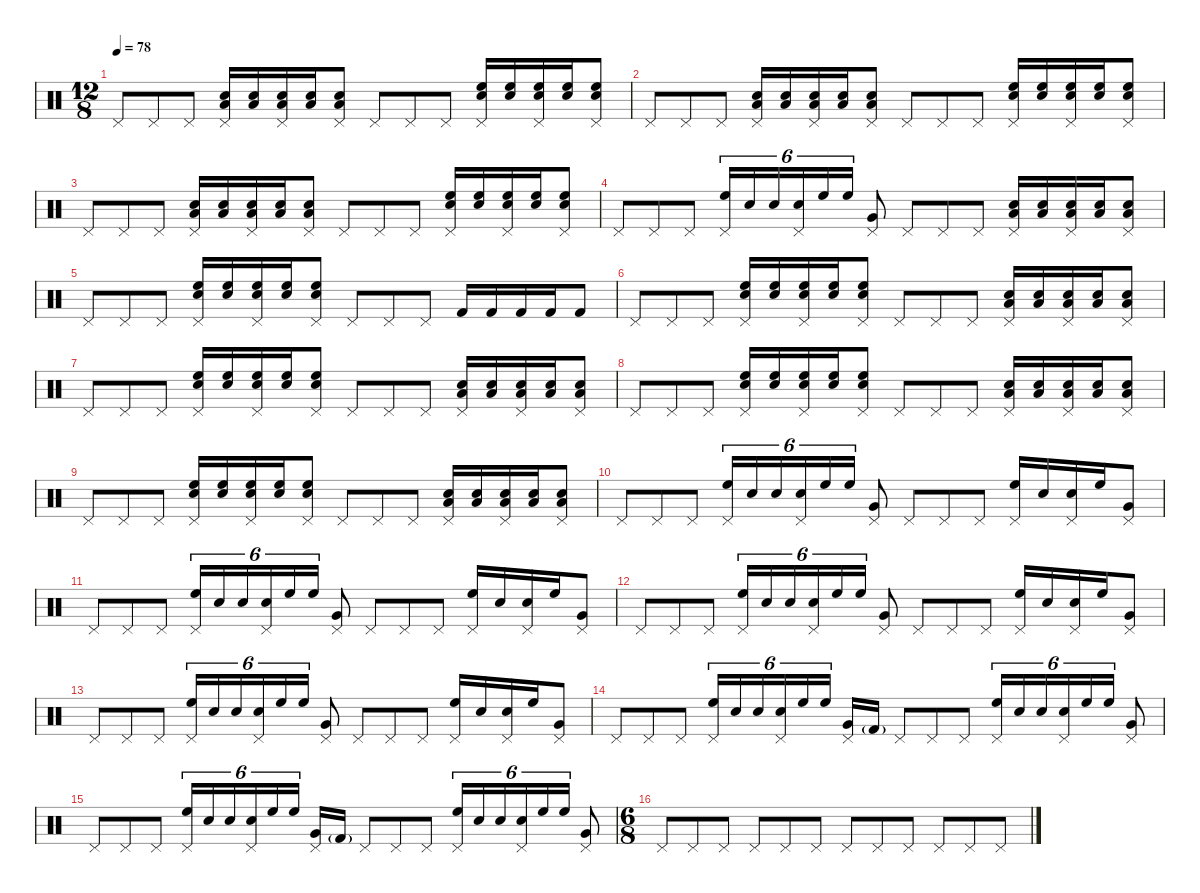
\defaultSystemsLayout 4
\hideDynamics
\bracketExtendMode nobrackets
\singleTrackTrackNamePolicy hidden
\multiTrackTrackNamePolicy hidden
\firstSystemTrackNameMode fullname
\firstSystemTrackNameOrientation horizontal
\otherSystemsTrackNameOrientation horizontal
\track ("Drums" "drm.") {instrument percussion}
\staff {score}
\articulation defaults
\ts (12 8)
\tempo 78
\clef neutral
\ks c "Pedal Hi-Hat (hit)".8{dy f beam Up} "Pedal Hi-Hat (hit)".8{beam Up} "Pedal Hi-Hat (hit)".8{beam Up}
("Pedal Hi-Hat (hit)" "Low Floor Tom (hit)" "Snare (hit) 2").16{beam Up} ("Low Floor Tom (hit)" "Snare (hit) 2").16{beam Up} ("Pedal Hi-Hat (hit)" "Low Floor Tom (hit)" "Snare (hit) 2").16{beam Up} ("Low Floor Tom (hit)" "Snare (hit) 2").16{beam Up} ("Pedal Hi-Hat (hit)" "Low Floor Tom (hit)" "Snare (hit) 2").8{beam Up} "Pedal Hi-Hat (hit)".8{beam Up} "Pedal Hi-Hat (hit)".8{beam Up} "Pedal Hi-Hat (hit)".8{beam Up} ("Pedal Hi-Hat (hit)" "High Floor Tom (hit)" "Snare (hit) 2").16{beam Up} ("High Floor Tom (hit)" "Snare (hit) 2").16{beam Up} ("Pedal Hi-Hat (hit)" "High Floor Tom (hit)" "Snare (hit) 2").16{beam Up} ("High Floor Tom (hit)" "Snare (hit) 2").16{beam Up} ("Pedal Hi-Hat (hit)" "High Floor Tom (hit)" "Snare (hit) 2").8{beam Up} |
"Pedal Hi-Hat (hit)".8{beam Up} "Pedal Hi-Hat (hit)".8{beam Up} "Pedal Hi-Hat (hit)".8{beam Up} ("Pedal Hi-Hat (hit)" "Low Floor Tom (hit)" "Snare (hit) 2").16{beam Up} ("Low Floor Tom (hit)" "Snare (hit) 2").16{beam Up} ("Pedal Hi-Hat (hit)" "Low Floor Tom (hit)" "Snare (hit) 2").16{beam Up} ("Low Floor Tom (hit)" "Snare (hit) 2").16{beam Up} ("Pedal Hi-Hat (hit)" "Low Floor Tom (hit)" "Snare (hit) 2").8{beam Up} "Pedal Hi-Hat (hit)".8{beam Up} "Pedal Hi-Hat (hit)".8{beam Up} "Pedal Hi-Hat (hit)".8{beam Up} ("Pedal Hi-Hat (hit)" "High Floor Tom (hit)" "Snare (hit) 2").16{beam Up} ("High Floor Tom (hit)" "Snare (hit) 2").16{beam Up} ("Pedal Hi-Hat (hit)" "High Floor Tom (hit)" "Snare (hit) 2").16{beam Up} ("High Floor Tom (hit)" "Snare (hit) 2").16{beam Up} ("Pedal Hi-Hat (hit)" "High Floor Tom (hit)" "Snare (hit) 2").8{beam Up} |
"Pedal Hi-Hat (hit)".8{beam Up} "Pedal Hi-Hat (hit)".8{beam Up} "Pedal Hi-Hat (hit)".8{beam Up} ("Pedal Hi-Hat (hit)" "Low Floor Tom (hit)" "Snare (hit) 2").16{beam Up} ("Low Floor Tom (hit)" "Snare (hit) 2").16{beam Up} ("Pedal Hi-Hat (hit)" "Low Floor Tom (hit)" "Snare (hit) 2").16{beam Up} ("Low Floor Tom (hit)" "Snare (hit) 2").16{beam Up} ("Pedal Hi-Hat (hit)" "Low Floor Tom (hit)" "Snare (hit) 2").8{beam Up} "Pedal Hi-Hat (hit)".8{beam Up} "Pedal Hi-Hat (hit)".8{beam Up} "Pedal Hi-Hat (hit)".8{beam Up} ("Pedal Hi-Hat (hit)" "High Floor Tom (hit)" "Snare (hit) 2").16{beam Up} ("High Floor Tom (hit)" "Snare (hit) 2").16{beam Up} ("Pedal Hi-Hat (hit)" "High Floor Tom (hit)" "Snare (hit) 2").16{beam Up} ("High Floor Tom (hit)" "Snare (hit) 2").16{beam Up} ("Pedal Hi-Hat (hit)" "High Floor Tom (hit)" "Snare (hit) 2").8{beam Up} |
"Pedal Hi-Hat (hit)".8{beam Up} "Pedal Hi-Hat (hit)".8{beam Up} "Pedal Hi-Hat (hit)".8{beam Up} ("Pedal Hi-Hat (hit)" "High Floor Tom (hit)").16{tu (6 4) beam Up} "Snare (hit) 2".16{tu (6 4) beam Up} "Snare (hit) 2".16{tu (6 4) beam Up} ("Pedal Hi-Hat (hit)" "Snare (hit) 2").16{tu (6 4) beam Up} "High Floor Tom (hit)".16{tu (6 4) beam Up} "High Floor Tom (hit)".16{tu (6 4) beam Up} ("Pedal Hi-Hat (hit)" "Very Low Tom (hit)").8{beam Up} "Pedal Hi-Hat (hit)".8{beam Up} "Pedal Hi-Hat (hit)".8{beam Up} "Pedal Hi-Hat (hit)".8{beam Up} ("Pedal Hi-Hat (hit)" "Low Floor Tom (hit)" "Snare (hit) 2").16{beam Up} ("Low Floor Tom (hit)" "Snare (hit) 2").16{beam Up} ("Pedal Hi-Hat (hit)" "Low Floor Tom (hit)" "Snare (hit) 2").16{beam Up} ("Low Floor Tom (hit)" "Snare (hit) 2").16{beam Up} ("Pedal Hi-Hat (hit)" "Low Floor Tom (hit)" "Snare (hit) 2").8{beam Up} |
"Pedal Hi-Hat (hit)".8{beam Up} "Pedal Hi-Hat (hit)".8{beam Up} "Pedal Hi-Hat (hit)".8{beam Up} ("Pedal Hi-Hat (hit)" "High Floor Tom (hit)" "Snare (hit) 2").16{beam Up} ("High Floor Tom (hit)" "Snare (hit) 2").16{beam Up} ("Pedal Hi-Hat (hit)" "High Floor Tom (hit)" "Snare (hit) 2").16{beam Up} ("High Floor Tom (hit)" "Snare (hit) 2").16{beam Up} ("Pedal Hi-Hat (hit)" "High Floor Tom (hit)" "Snare (hit) 2").8{beam Up} "Pedal Hi-Hat (hit)".8{beam Up} "Pedal Hi-Hat (hit)".8{beam Up} "Pedal Hi-Hat (hit)".8{beam Up} "Kick (hit) 2".16{beam Up} "Kick (hit) 2".16{beam Up} "Kick (hit) 2".16{beam Up} "Kick (hit) 2".16{beam Up} "Kick (hit) 2".8{beam Up} |
"Pedal Hi-Hat (hit)".8{beam Up} "Pedal Hi-Hat (hit)".8{beam Up} "Pedal Hi-Hat (hit)".8{beam Up} ("Pedal Hi-Hat (hit)" "High Floor Tom (hit)" "Snare (hit) 2").16{beam Up} ("High Floor Tom (hit)" "Snare (hit) 2").16{beam Up} ("Pedal Hi-Hat (hit)" "High Floor Tom (hit)" "Snare (hit) 2").16{beam Up} ("High Floor Tom (hit)" "Snare (hit) 2").16{beam Up} ("Pedal Hi-Hat (hit)" "High Floor Tom (hit)" "Snare (hit) 2").8{beam Up} "Pedal Hi-Hat (hit)".8{beam Up} "Pedal Hi-Hat (hit)".8{beam Up} "Pedal Hi-Hat (hit)".8{beam Up} ("Pedal Hi-Hat (hit)" "Low Floor Tom (hit)" "Snare (hit) 2").16{beam Up} ("Low Floor Tom (hit)" "Snare (hit) 2").16{beam Up} ("Pedal Hi-Hat (hit)" "Low Floor Tom (hit)" "Snare (hit) 2").16{beam Up} ("Low Floor Tom (hit)" "Snare (hit) 2").16{beam Up} ("Pedal Hi-Hat (hit)" "Low Floor Tom (hit)" "Snare (hit) 2").8{beam Up} |
"Pedal Hi-Hat (hit)".8{beam Up} "Pedal Hi-Hat (hit)".8{beam Up} "Pedal Hi-Hat (hit)".8{beam Up} ("Pedal Hi-Hat (hit)" "High Floor Tom (hit)" "Snare (hit) 2").16{beam Up} ("High Floor Tom (hit)" "Snare (hit) 2").16{beam Up} ("Pedal Hi-Hat (hit)" "High Floor Tom (hit)" "Snare (hit) 2").16{beam Up} ("High Floor Tom (hit)" "Snare (hit) 2").16{beam Up} ("Pedal Hi-Hat (hit)" "High Floor Tom (hit)" "Snare (hit) 2").8{beam Up} "Pedal Hi-Hat (hit)".8{beam Up} "Pedal Hi-Hat (hit)".8{beam Up} "Pedal Hi-Hat (hit)".8{beam Up} ("Pedal Hi-Hat (hit)" "Low Floor Tom (hit)" "Snare (hit) 2").16{beam Up} ("Low Floor Tom (hit)" "Snare (hit) 2").16{beam Up} ("Pedal Hi-Hat (hit)" "Low Floor Tom (hit)" "Snare (hit) 2").16{beam Up} ("Low Floor Tom (hit)" "Snare (hit) 2").16{beam Up} ("Pedal Hi-Hat (hit)" "Low Floor Tom (hit)" "Snare (hit) 2").8{beam Up} |
"Pedal Hi-Hat (hit)".8{beam Up} "Pedal Hi-Hat (hit)".8{beam Up} "Pedal Hi-Hat (hit)".8{beam Up} ("Pedal Hi-Hat (hit)" "High Floor Tom (hit)" "Snare (hit) 2").16{beam Up} ("High Floor Tom (hit)" "Snare (hit) 2").16{beam Up} ("Pedal Hi-Hat (hit)" "High Floor Tom (hit)" "Snare (hit) 2").16{beam Up} ("High Floor Tom (hit)" "Snare (hit) 2").16{beam Up} ("Pedal Hi-Hat (hit)" "High Floor Tom (hit)" "Snare (hit) 2").8{beam Up} "Pedal Hi-Hat (hit)".8{beam Up} "Pedal Hi-Hat (hit)".8{beam Up} "Pedal Hi-Hat (hit)".8{beam Up} ("Pedal Hi-Hat (hit)" "Low Floor Tom (hit)" "Snare (hit) 2").16{beam Up} ("Low Floor Tom (hit)" "Snare (hit) 2").16{beam Up} ("Pedal Hi-Hat (hit)" "Low Floor Tom (hit)" "Snare (hit) 2").16{beam Up} ("Low Floor Tom (hit)" "Snare (hit) 2").16{beam Up} ("Pedal Hi-Hat (hit)" "Low Floor Tom (hit)" "Snare (hit) 2").8{beam Up} |
"Pedal Hi-Hat (hit)".8{beam Up} "Pedal Hi-Hat (hit)".8{beam Up} "Pedal Hi-Hat (hit)".8{beam Up} ("Pedal Hi-Hat (hit)" "High Floor Tom (hit)" "Snare (hit) 2").16{beam Up} ("High Floor Tom (hit)" "Snare (hit) 2").16{beam Up} ("Pedal Hi-Hat (hit)" "High Floor Tom (hit)" "Snare (hit) 2").16{beam Up} ("High Floor Tom (hit)" "Snare (hit) 2").16{beam Up} ("Pedal Hi-Hat (hit)" "High Floor Tom (hit)" "Snare (hit) 2").8{beam Up} "Pedal Hi-Hat (hit)".8{beam Up} "Pedal Hi-Hat (hit)".8{beam Up} "Pedal Hi-Hat (hit)".8{beam Up} ("Pedal Hi-Hat (hit)" "Low Floor Tom (hit)" "Snare (hit) 2").16{beam Up} ("Low Floor Tom (hit)" "Snare (hit) 2").16{beam Up} ("Pedal Hi-Hat (hit)" "Low Floor Tom (hit)" "Snare (hit) 2").16{beam Up} ("Low Floor Tom (hit)" "Snare (hit) 2").16{beam Up} ("Pedal Hi-Hat (hit)" "Low Floor Tom (hit)" "Snare (hit) 2").8{beam Up} |
"Pedal Hi-Hat (hit)".8{beam Up} "Pedal Hi-Hat (hit)".8{beam Up} "Pedal Hi-Hat (hit)".8{beam Up} ("Pedal Hi-Hat (hit)" "High Floor Tom (hit)").16{tu (6 4) beam Up} "Snare (hit) 2".16{tu (6 4) beam Up} "Snare (hit) 2".16{tu (6 4) beam Up} ("Pedal Hi-Hat (hit)" "Snare (hit) 2").16{tu (6 4) beam Up} "High Floor Tom (hit)".16{tu (6 4) beam Up} "High Floor Tom (hit)".16{tu (6 4) beam Up} ("Pedal Hi-Hat (hit)" "Very Low Tom (hit)").8{beam Up} "Pedal Hi-Hat (hit)".8{beam Up} "Pedal Hi-Hat (hit)".8{beam Up} "Pedal Hi-Hat (hit)".8{beam Up} ("Pedal Hi-Hat (hit)" "High Floor Tom (hit)").16{beam Up} "Snare (hit) 2".16{beam Up} ("Pedal Hi-Hat (hit)" "Snare (hit) 2").16{beam Up} "High Floor Tom (hit)".16{beam Up} ("Pedal Hi-Hat (hit)" "Very Low Tom (hit)").8{beam Up} |
"Pedal Hi-Hat (hit)".8{beam Up} "Pedal Hi-Hat (hit)".8{beam Up} "Pedal Hi-Hat (hit)".8{beam Up} ("Pedal Hi-Hat (hit)" "High Floor Tom (hit)").16{tu (6 4) beam Up} "Snare (hit) 2".16{tu (6 4) beam Up} "Snare (hit) 2".16{tu (6 4) beam Up} ("Pedal Hi-Hat (hit)" "Snare (hit) 2").16{tu (6 4) beam Up} "High Floor Tom (hit)".16{tu (6 4) beam Up} "High Floor Tom (hit)".16{tu (6 4) beam Up} ("Pedal Hi-Hat (hit)" "Very Low Tom (hit)").8{beam Up} "Pedal Hi-Hat (hit)".8{beam Up} "Pedal Hi-Hat (hit)".8{beam Up} "Pedal Hi-Hat (hit)".8{beam Up} ("Pedal Hi-Hat (hit)" "High Floor Tom (hit)").16{beam Up} "Snare (hit) 2".16{beam Up} ("Pedal Hi-Hat (hit)" "Snare (hit) 2").16{beam Up} "High Floor Tom (hit)".16{beam Up} ("Pedal Hi-Hat (hit)" "Very Low Tom (hit)").8{beam Up} |
"Pedal Hi-Hat (hit)".8{beam Up} "Pedal Hi-Hat (hit)".8{beam Up} "Pedal Hi-Hat (hit)".8{beam Up} ("Pedal Hi-Hat (hit)" "High Floor Tom (hit)").16{tu (6 4) beam Up} "Snare (hit) 2".16{tu (6 4) beam Up} "Snare (hit) 2".16{tu (6 4) beam Up} ("Pedal Hi-Hat (hit)" "Snare (hit) 2").16{tu (6 4) beam Up} "High Floor Tom (hit)".16{tu (6 4) beam Up} "High Floor Tom (hit)".16{tu (6 4) beam Up} ("Pedal Hi-Hat (hit)" "Very Low Tom (hit)").8{beam Up} "Pedal Hi-Hat (hit)".8{beam Up} "Pedal Hi-Hat (hit)".8{beam Up} "Pedal Hi-Hat (hit)".8{beam Up} ("Pedal Hi-Hat (hit)" "High Floor Tom (hit)").16{beam Up} "Snare (hit) 2".16{beam Up} ("Pedal Hi-Hat (hit)" "Snare (hit) 2").16{beam Up} "High Floor Tom (hit)".16{beam Up} ("Pedal Hi-Hat (hit)" "Very Low Tom (hit)").8{beam Up} |
"Pedal Hi-Hat (hit)".8{beam Up} "Pedal Hi-Hat (hit)".8{beam Up} "Pedal Hi-Hat (hit)".8{beam Up} ("Pedal Hi-Hat (hit)" "High Floor Tom (hit)").16{tu (6 4) beam Up} "Snare (hit) 2".16{tu (6 4) beam Up} "Snare (hit) 2".16{tu (6 4) beam Up} ("Pedal Hi-Hat (hit)" "Snare (hit) 2").16{tu (6 4) beam Up} "High Floor Tom (hit)".16{tu (6 4) beam Up} "High Floor Tom (hit)".16{tu (6 4) beam Up} ("Pedal Hi-Hat (hit)" "Very Low Tom (hit)").8{beam Up} "Pedal Hi-Hat (hit)".8{beam Up} "Pedal Hi-Hat (hit)".8{beam Up} "Pedal Hi-Hat (hit)".8{beam Up} ("Pedal Hi-Hat (hit)" "High Floor Tom (hit)").16{beam Up} "Snare (hit) 2".16{beam Up} ("Pedal Hi-Hat (hit)" "Snare (hit) 2").16{beam Up} "High Floor Tom (hit)".16{beam Up} ("Pedal Hi-Hat (hit)" "Very Low Tom (hit)").8{beam Up} |
"Pedal Hi-Hat (hit)".8{beam Up} "Pedal Hi-Hat (hit)".8{beam Up} "Pedal Hi-Hat (hit)".8{beam Up} ("Pedal Hi-Hat (hit)" "High Floor Tom (hit)").16{tu (6 4) beam Up} "Snare (hit) 2".16{tu (6 4) beam Up} "Snare (hit) 2".16{tu (6 4) beam Up} ("Pedal Hi-Hat (hit)" "Snare (hit) 2").16{tu (6 4) beam Up} "High Floor Tom (hit)".16{tu (6 4) beam Up} "High Floor Tom (hit)".16{tu (6 4) beam Up} ("Pedal Hi-Hat (hit)" "Very Low Tom (hit)").16{beam Up} "Kick (hit) 2"{g}.16{beam Up} "Pedal Hi-Hat (hit)".8{beam Up} "Pedal Hi-Hat (hit)".8{beam Up} "Pedal Hi-Hat (hit)".8{beam Up} ("Pedal Hi-Hat (hit)" "High Floor Tom (hit)").16{tu (6 4) beam Up} "Snare (hit) 2".16{tu (6 4) beam Up} "Snare (hit) 2".16{tu (6 4) beam Up} ("Pedal Hi-Hat (hit)" "Snare (hit) 2").16{tu (6 4) beam Up} "High Floor Tom (hit)".16{tu (6 4) beam Up} "High Floor Tom (hit)".16{tu (6 4) beam Up} ("Pedal Hi-Hat (hit)" "Very Low Tom (hit)").8{beam Up} |
"Pedal Hi-Hat (hit)".8{beam Up} "Pedal Hi-Hat (hit)".8{beam Up} "Pedal Hi-Hat (hit)".8{beam Up} ("Pedal Hi-Hat (hit)" "High Floor Tom (hit)").16{tu (6 4) beam Up} "Snare (hit) 2".16{tu (6 4) beam Up} "Snare (hit) 2".16{tu (6 4) beam Up} ("Pedal Hi-Hat (hit)" "Snare (hit) 2").16{tu (6 4) beam Up} "High Floor Tom (hit)".16{tu (6 4) beam Up} "High Floor Tom (hit)".16{tu (6 4) beam Up} ("Pedal Hi-Hat (hit)" "Very Low Tom (hit)").16{beam Up} "Kick (hit) 2"{g}.16{beam Up} "Pedal Hi-Hat (hit)".8{beam Up} "Pedal Hi-Hat (hit)".8{beam Up} "Pedal Hi-Hat (hit)".8{beam Up} ("Pedal Hi-Hat (hit)" "High Floor Tom (hit)").16{tu (6 4) beam Up} "Snare (hit) 2".16{tu (6 4) beam Up} "Snare (hit) 2".16{tu (6 4) beam Up} ("Pedal Hi-Hat (hit)" "Snare (hit) 2").16{tu (6 4) beam Up} "High Floor Tom (hit)".16{tu (6 4) beam Up} "High Floor Tom (hit)".16{tu (6 4) beam Up} ("Pedal Hi-Hat (hit)" "Very Low Tom (hit)").8{beam Up} |
\ts (6 8)
"Pedal Hi-Hat (hit)".8{beam Up} "Pedal Hi-Hat (hit)".8{beam Up} "Pedal Hi-Hat (hit)".8{beam Up} "Pedal Hi-Hat (hit)".8{beam Up} "Pedal Hi-Hat (hit)".8{beam Up} "Pedal Hi-Hat (hit)".8{beam Up} "Pedal Hi-Hat (hit)".8{beam Up} "Pedal Hi-Hat (hit)".8{beam Up} "Pedal Hi-Hat (hit)".8{beam Up} "Pedal Hi-Hat (hit)".8{beam Up} "Pedal Hi-Hat (hit)".8{beam Up} "Pedal Hi-Hat (hit)".8{beam Up}
